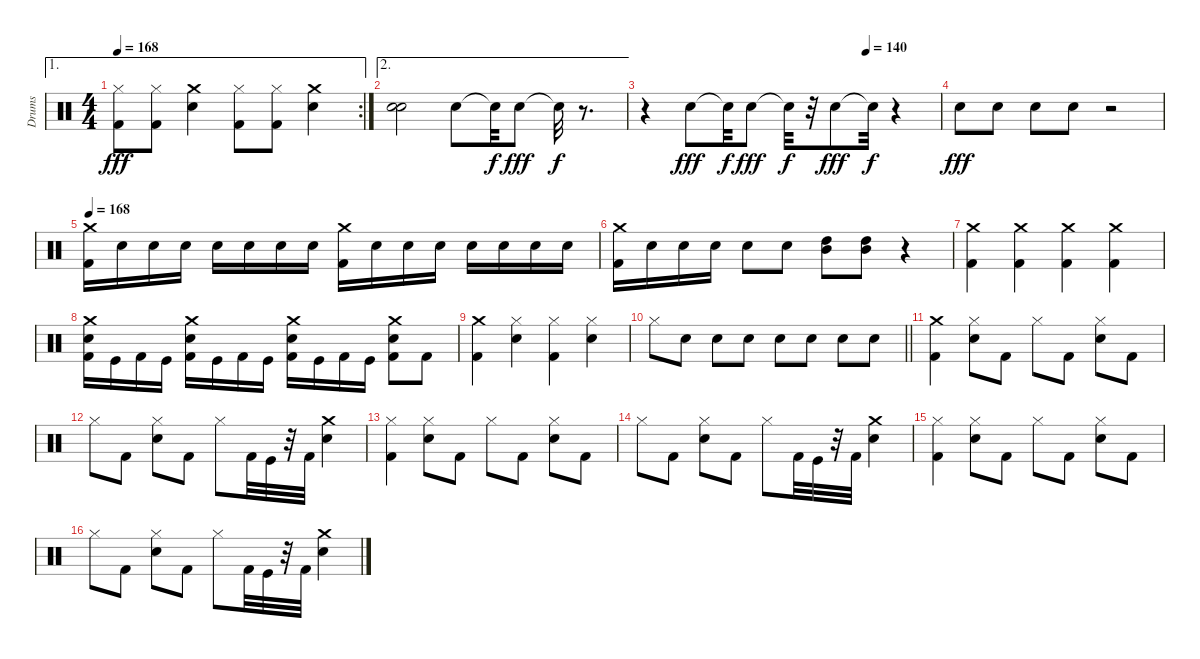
\track ("Drums" "Drums") {instrument percussion}
\staff {score}
\articulation defaults
\ae 1
\rc 2
\ts (4 4)
\tempo 168
\clef neutral
\ks c
("Hi-Hat (closed)" "Kick (hit) 2").8{dy fff} ("Hi-Hat (closed)" "Kick (hit) 2").8 ("Snare (hit) 2" "Crash medium (hit)").4 ("Kick (hit) 2" "Hi-Hat (closed)").8 ("Kick (hit) 2" "Hi-Hat (closed)").8 ("Crash medium (hit)" "Snare (hit) 2").4 |
\ae 2
("Snare (hit) 2" "Snare (hit) 2").2 "Snare (hit) 2".8 "Snare (hit)"{t}.32{dy f} "Snare (hit) 2".8{dy fff} "Snare (hit)"{t}.32{dy f} r.8{d} |
\tempo (140 0.75)
r.4 "Snare (hit) 2".8{dy fff} "Snare (hit)"{t}.32{dy f} "Snare (hit) 2".8{dy fff} "Snare (hit)"{t}.32{dy f} r.32 "Snare (hit) 2".8{dy fff} "Snare (hit)"{t}.32{dy f} r.4 |
"Snare (hit) 2".8{dy fff} "Snare (hit) 2".8 "Snare (hit) 2".8 "Snare (hit) 2".8 r.2 |
\tempo 168
("Kick (hit) 2" "Crash medium (hit)").16 "Snare (hit) 2".16 "Snare (hit) 2".16 "Snare (hit) 2".16 "Snare (hit) 2".16 "Snare (hit) 2".16 "Snare (hit) 2".16 "Snare (hit) 2".16 ("Kick (hit) 2" "Crash medium (hit)").16 "Snare (hit) 2".16 "Snare (hit) 2".16 "Snare (hit) 2".16 "Snare (hit) 2".16 "Snare (hit) 2".16 "Snare (hit) 2".16 "Snare (hit) 2".16 |
("Kick (hit) 2" "Crash medium (hit)").16 "Snare (hit) 2".16 "Snare (hit) 2".16 "Snare (hit) 2".16 "Snare (hit) 2".8 "Snare (hit) 2".8 ("High Tom (hit)" "Mid Tom (hit)").8 ("High Tom (hit)" "Mid Tom (hit)").8 r.4 |
("Crash medium (hit)" "Kick (hit) 2").4 ("Crash medium (hit)" "Kick (hit) 2").4 ("Crash medium (hit)" "Kick (hit) 2").4 ("Crash medium (hit)" "Kick (hit) 2").4 |
("Snare (hit) 2" "Crash medium (hit)" "Kick (hit) 2").16 "Kick (hit)".16 "Kick (hit) 2".16 "Kick (hit)".16 ("Snare (hit) 2" "Crash medium (hit)" "Kick (hit) 2").16 "Kick (hit)".16 "Kick (hit) 2".16 "Kick (hit)".16 ("Snare (hit) 2" "Crash medium (hit)" "Kick (hit) 2").16 "Kick (hit)".16 "Kick (hit) 2".16 "Kick (hit)".16 ("Snare (hit) 2" "Crash medium (hit)" "Kick (hit) 2").8 "Kick (hit) 2".8 |
("Crash medium (hit)" "Kick (hit) 2").4 ("Snare (hit) 2" "Hi-Hat (closed)").4 ("Kick (hit) 2" "Hi-Hat (closed)").4 ("Snare (hit) 2" "Hi-Hat (closed)").4 |
\barLineRight lightlight "Hi-Hat (closed)".8 "Snare (hit) 2".8 "Snare (hit) 2".8 "Snare (hit) 2".8 "Snare (hit) 2".8 "Snare (hit) 2".8 "Snare (hit) 2".8 "Snare (hit) 2".8
|
("Kick (hit) 2" "Crash medium (hit)").4 ("Hi-Hat (closed)" "Snare (hit) 2").8 "Kick (hit) 2".8 "Hi-Hat (closed)".8 "Kick (hit) 2".8 ("Snare (hit) 2" "Hi-Hat (closed)").8 "Kick (hit) 2".8 |
"Hi-Hat (closed)".8 "Kick (hit) 2".8 ("Snare (hit) 2" "Hi-Hat (closed)").8 "Kick (hit) 2".8 "Hi-Hat (closed)".8 "Kick (hit) 2".32 "Kick (hit)".32 r.32 "Kick (hit) 2".32 ("Crash medium (hit)" "Snare (hit) 2").4 |
("Hi-Hat (closed)" "Kick (hit) 2").4 ("Hi-Hat (closed)" "Snare (hit) 2").8 "Kick (hit) 2".8 "Hi-Hat (closed)".8 "Kick (hit) 2".8 ("Snare (hit) 2" "Hi-Hat (closed)").8 "Kick (hit) 2".8 |
"Hi-Hat (closed)".8 "Kick (hit) 2".8 ("Snare (hit) 2" "Hi-Hat (closed)").8 "Kick (hit) 2".8 "Hi-Hat (closed)".8 "Kick (hit) 2".32 "Kick (hit)".32 r.32 "Kick (hit) 2".32 ("Crash medium (hit)" "Snare (hit) 2").4 |
("Hi-Hat (closed)" "Kick (hit) 2").4 ("Hi-Hat (closed)" "Snare (hit) 2").8 "Kick (hit) 2".8 "Hi-Hat (closed)".8 "Kick (hit) 2".8 ("Snare (hit) 2" "Hi-Hat (closed)").8 "Kick (hit) 2".8 |
"Hi-Hat (closed)".8 "Kick (hit) 2".8 ("Snare (hit) 2" "Hi-Hat (closed)").8 "Kick (hit) 2".8 "Hi-Hat (closed)".8 "Kick (hit) 2".32 "Kick (hit)".32 r.32 "Kick (hit) 2".32 ("Crash medium (hit)" "Snare (hit) 2").4
